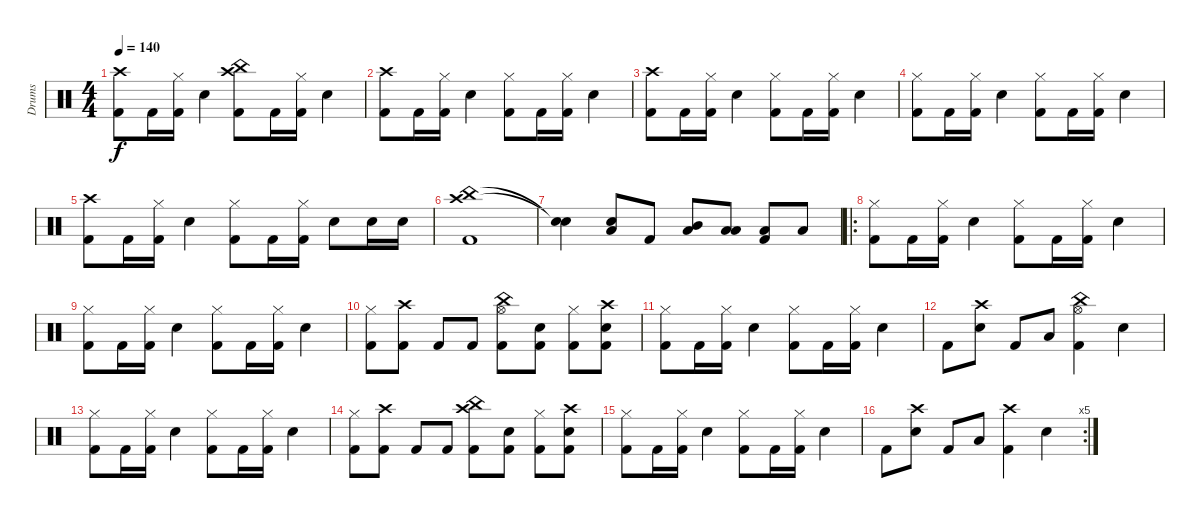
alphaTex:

\track ("Drums" "Drums") {instrument percussion}
\staff {score}
\articulation defaults
\ts (4 4)
\tempo 140
\clef neutral
\ks c
("Crash high (hit)" "Kick (hit) 2").8{dy f} "Kick (hit) 2".16 ("Hi-Hat (closed)" "Kick (hit) 2").16 "Electric Snare (hit)".4 ("China (hit)" "Crash high (hit)" "Kick (hit) 2").8 "Kick (hit) 2".16 ("Hi-Hat (closed)" "Kick (hit) 2").16 "Electric Snare (hit)".4 |
("Crash high (hit)" "Kick (hit) 2").8 "Kick (hit) 2".16 ("Hi-Hat (closed)" "Kick (hit) 2").16 "Electric Snare (hit)".4 ("Hi-Hat (closed)" "Kick (hit) 2").8 "Kick (hit) 2".16 ("Hi-Hat (closed)" "Kick (hit) 2").16 "Electric Snare (hit)".4 |
("Crash high (hit)" "Kick (hit) 2").8 "Kick (hit) 2".16 ("Hi-Hat (closed)" "Kick (hit) 2").16 "Electric Snare (hit)".4 ("Hi-Hat (closed)" "Kick (hit) 2").8 "Kick (hit) 2".16 ("Hi-Hat (closed)" "Kick (hit) 2").16 "Electric Snare (hit)".4 |
("Hi-Hat (closed)" "Kick (hit) 2").8 "Kick (hit) 2".16 ("Hi-Hat (closed)" "Kick (hit) 2").16 "Electric Snare (hit)".4 ("Hi-Hat (closed)" "Kick (hit) 2").8 "Kick (hit) 2".16 ("Hi-Hat (closed)" "Kick (hit) 2").16 "Electric Snare (hit)".4 |
("Crash high (hit)" "Kick (hit) 2").8 "Kick (hit) 2".16 ("Hi-Hat (closed)" "Kick (hit) 2").16 "Electric Snare (hit)".4 ("Hi-Hat (closed)" "Kick (hit) 2").8 "Kick (hit) 2".16 ("Hi-Hat (closed)" "Kick (hit) 2").16 "Electric Snare (hit)".8 "Electric Snare (hit)".16 "Electric Snare (hit)".16 |
("China (hit)" "Crash high (hit)" "Kick (hit) 2").1 |
("Snare (hit)"{t} "Snare (hit)"{t}).4 ("Low Tom (hit)" "Electric Snare (hit)").8 "Kick (hit) 2".8 ("Mid Tom (hit)" "Low Tom (hit)").8 ("Low Tom (hit)" "Low Floor Tom (hit)").8 ("Low Floor Tom (hit)" "Kick (hit) 2").8 "Low Floor Tom (hit)".8 |
\ro
("Hi-Hat (closed)" "Kick (hit) 2").8 "Kick (hit) 2".16 ("Hi-Hat (closed)" "Kick (hit) 2").16 "Electric Snare (hit)".4 ("Hi-Hat (closed)" "Kick (hit) 2").8 "Kick (hit) 2".16 ("Hi-Hat (closed)" "Kick (hit) 2").16 "Electric Snare (hit)".4 |
("Hi-Hat (closed)" "Kick (hit) 2").8 "Kick (hit) 2".16 ("Hi-Hat (closed)" "Kick (hit) 2").16 "Electric Snare (hit)".4 ("Hi-Hat (closed)" "Kick (hit) 2").8 "Kick (hit) 2".16 ("Hi-Hat (closed)" "Kick (hit) 2").16 "Electric Snare (hit)".4 |
("Hi-Hat (closed)" "Kick (hit) 2").8 ("Crash high (hit)" "Kick (hit) 2").8 "Kick (hit) 2".8 "Kick (hit) 2".8 ("China (hit)" "Hi-Hat (open)" "Kick (hit) 2").8 ("Electric Snare (hit)" "Kick (hit) 2").8 ("Hi-Hat (closed)" "Kick (hit) 2").8 ("Crash high (hit)" "Electric Snare (hit)" "Kick (hit) 2").8 |
("Hi-Hat (closed)" "Kick (hit) 2").8 "Kick (hit) 2".16 ("Hi-Hat (closed)" "Kick (hit) 2").16 "Electric Snare (hit)".4 ("Hi-Hat (closed)" "Kick (hit) 2").8 "Kick (hit) 2".16 ("Hi-Hat (closed)" "Kick (hit) 2").16 "Electric Snare (hit)".4 |
"Kick (hit) 2".8 ("Crash high (hit)" "Electric Snare (hit)").8 "Kick (hit) 2".8 "Low Floor Tom (hit)".8 ("China (hit)" "Hi-Hat (open)" "Kick (hit) 2").4 "Electric Snare (hit)".4 |
("Hi-Hat (closed)" "Kick (hit) 2").8 "Kick (hit) 2".16 ("Hi-Hat (closed)" "Kick (hit) 2").16 "Electric Snare (hit)".4 ("Hi-Hat (closed)" "Kick (hit) 2").8 "Kick (hit) 2".16 ("Hi-Hat (closed)" "Kick (hit) 2").16 "Electric Snare (hit)".4 |
("Hi-Hat (closed)" "Kick (hit) 2").8 ("Crash high (hit)" "Kick (hit) 2").8 "Kick (hit) 2".8 "Kick (hit) 2".8 ("China (hit)" "Crash high (hit)" "Kick (hit) 2").8 ("Electric Snare (hit)" "Kick (hit) 2").8 ("Hi-Hat (closed)" "Kick (hit) 2").8 ("Crash high (hit)" "Electric Snare (hit)" "Kick (hit) 2").8 |
("Hi-Hat (closed)" "Kick (hit) 2").8 "Kick (hit) 2".16 ("Hi-Hat (closed)" "Kick (hit) 2").16 "Electric Snare (hit)".4 ("Hi-Hat (closed)" "Kick (hit) 2").8 "Kick (hit) 2".16 ("Hi-Hat (closed)" "Kick (hit) 2").16 "Electric Snare (hit)".4 |
\rc 5 "Kick (hit) 2".8
("Crash high (hit)" "Electric Snare (hit)").8 "Kick (hit) 2".8 "Low Floor Tom (hit)".8 ("Crash high (hit)" "Kick (hit) 2").4 "Electric Snare (hit)".4
